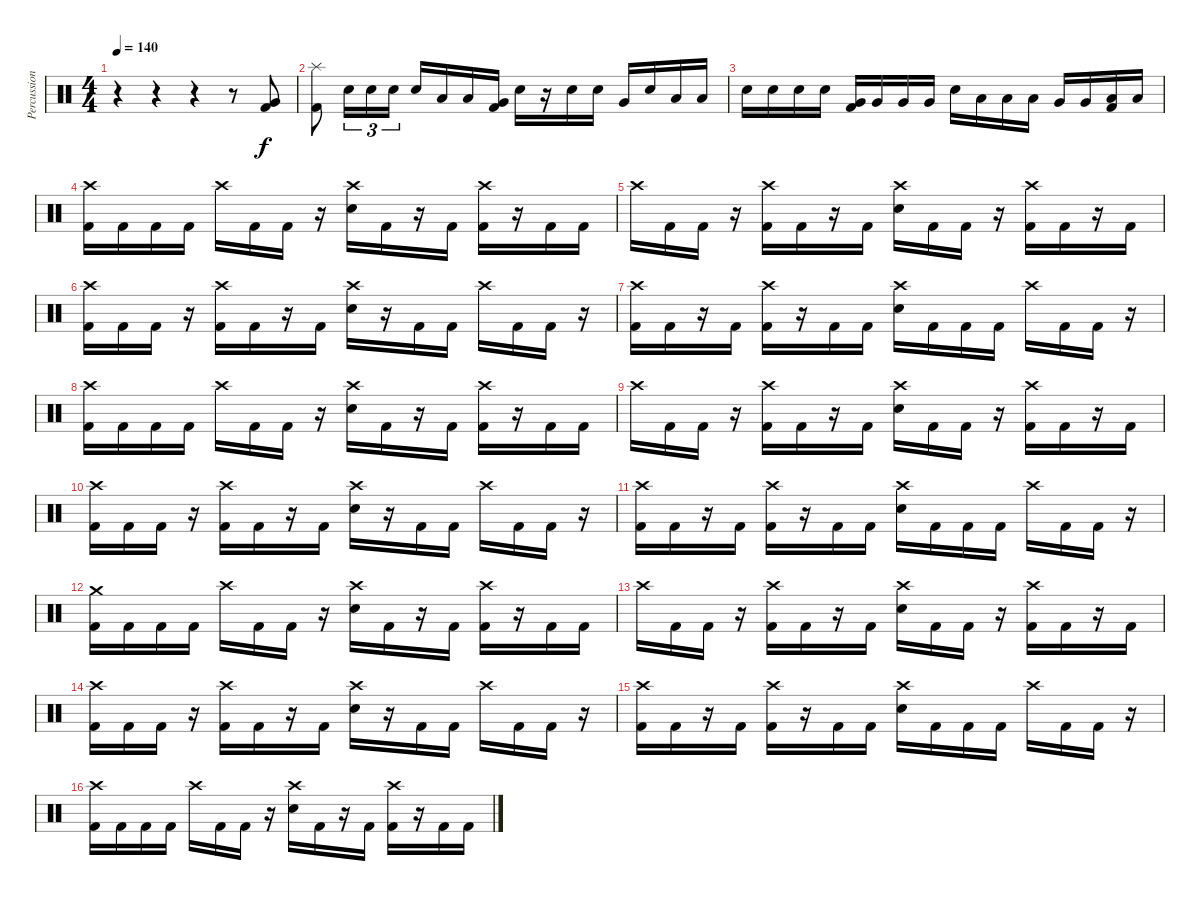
\track ("Percussion" "Percussion") {instrument percussion}
\staff {score}
\articulation defaults
\ts (4 4)
\tempo 140
\clef neutral
\ks c
r.4{dy f} r.4 r.4 r.8 ("Very Low Tom (hit)" "Kick (hit) 2").8 |
("Splash (hit)" "Kick (hit) 2").8 "Electric Snare (hit)".16{tu (3 2)} "Electric Snare (hit)".16{tu (3 2)} "Electric Snare (hit)".16{tu (3 2)} "Electric Snare (hit)".16 "Low Tom (hit)".16 "Low Tom (hit)".16 ("Very Low Tom (hit)" "Kick (hit) 2").16 "Electric Snare (hit)".16 r.16 "Electric Snare (hit)".16 "Electric Snare (hit)".16 "Very Low Tom (hit)".16 "Electric Snare (hit)".16 "Low Tom (hit)".16 "Low Tom (hit)".16 |
"Electric Snare (hit)".16 "Electric Snare (hit)".16 "Electric Snare (hit)".16 "Electric Snare (hit)".16 ("Very Low Tom (hit)" "Kick (hit) 2").16 "Very Low Tom (hit)".16 "Very Low Tom (hit)".16 "Very Low Tom (hit)".16 "Electric Snare (hit)".16 "Low Tom (hit)".16 "Low Tom (hit)".16 "Low Tom (hit)".16 "Very Low Tom (hit)".16 "Very Low Tom (hit)".16 ("Low Floor Tom (hit)" "Kick (hit) 2").16 "Low Floor Tom (hit)".16 |
("Crash high (hit)" "Kick (hit) 2").16 "Kick (hit) 2".16 "Kick (hit) 2".16 "Kick (hit) 2".16 "Crash high (hit)".16 "Kick (hit) 2".16 "Kick (hit) 2".16 r.16 ("Crash high (hit)" "Electric Snare (hit)").16 "Kick (hit) 2".16 r.16 "Kick (hit) 2".16 ("Crash high (hit)" "Kick (hit) 2").16 r.16 "Kick (hit) 2".16 "Kick (hit) 2".16 |
"Crash high (hit)".16 "Kick (hit) 2".16 "Kick (hit) 2".16 r.16 ("Crash high (hit)" "Kick (hit) 2").16 "Kick (hit) 2".16 r.16 "Kick (hit) 2".16 ("Crash high (hit)" "Electric Snare (hit)").16 "Kick (hit) 2".16 "Kick (hit) 2".16 r.16 ("Crash high (hit)" "Kick (hit) 2").16 "Kick (hit) 2".16 r.16 "Kick (hit) 2".16 |
("Crash high (hit)" "Kick (hit) 2").16 "Kick (hit) 2".16 "Kick (hit) 2".16 r.16 ("Crash high (hit)" "Kick (hit) 2").16 "Kick (hit) 2".16 r.16 "Kick (hit) 2".16 ("Crash high (hit)" "Electric Snare (hit)").16 r.16 "Kick (hit) 2".16 "Kick (hit) 2".16 "Crash high (hit)".16 "Kick (hit) 2".16 "Kick (hit) 2".16 r.16 |
("Crash high (hit)" "Kick (hit) 2").16 "Kick (hit) 2".16 r.16 "Kick (hit) 2".16 ("Crash high (hit)" "Kick (hit) 2").16 r.16 "Kick (hit) 2".16 "Kick (hit) 2".16 ("Crash high (hit)" "Electric Snare (hit)").16 "Kick (hit) 2".16 "Kick (hit) 2".16 "Kick (hit) 2".16 "Crash high (hit)".16 "Kick (hit) 2".16 "Kick (hit) 2".16 r.16 |
("Crash high (hit)" "Kick (hit) 2").16 "Kick (hit) 2".16 "Kick (hit) 2".16 "Kick (hit) 2".16 "Crash high (hit)".16 "Kick (hit) 2".16 "Kick (hit) 2".16 r.16 ("Crash high (hit)" "Electric Snare (hit)").16 "Kick (hit) 2".16 r.16 "Kick (hit) 2".16 ("Crash high (hit)" "Kick (hit) 2").16 r.16 "Kick (hit) 2".16 "Kick (hit) 2".16 |
"Crash high (hit)".16 "Kick (hit) 2".16 "Kick (hit) 2".16 r.16 ("Crash high (hit)" "Kick (hit) 2").16 "Kick (hit) 2".16 r.16 "Kick (hit) 2".16 ("Crash high (hit)" "Electric Snare (hit)").16 "Kick (hit) 2".16 "Kick (hit) 2".16 r.16 ("Crash high (hit)" "Kick (hit) 2").16 "Kick (hit) 2".16 r.16 "Kick (hit) 2".16 |
("Crash high (hit)" "Kick (hit) 2").16 "Kick (hit) 2".16 "Kick (hit) 2".16 r.16 ("Crash high (hit)" "Kick (hit) 2").16 "Kick (hit) 2".16 r.16 "Kick (hit) 2".16 ("Crash high (hit)" "Electric Snare (hit)").16 r.16 "Kick (hit) 2".16 "Kick (hit) 2".16 "Crash high (hit)".16 "Kick (hit) 2".16 "Kick (hit) 2".16 r.16 |
("Crash high (hit)" "Kick (hit) 2").16 "Kick (hit) 2".16 r.16 "Kick (hit) 2".16 ("Crash high (hit)" "Kick (hit) 2").16 r.16 "Kick (hit) 2".16 "Kick (hit) 2".16 ("Crash high (hit)" "Electric Snare (hit)").16 "Kick (hit) 2".16 "Kick (hit) 2".16 "Kick (hit) 2".16 "Crash high (hit)".16 "Kick (hit) 2".16 "Kick (hit) 2".16 r.16 |
("Crash medium (hit)" "Kick (hit) 2").16 "Kick (hit) 2".16 "Kick (hit) 2".16 "Kick (hit) 2".16 "Crash high (hit)".16 "Kick (hit) 2".16 "Kick (hit) 2".16 r.16 ("Crash high (hit)" "Electric Snare (hit)").16 "Kick (hit) 2".16 r.16 "Kick (hit) 2".16 ("Crash high (hit)" "Kick (hit) 2").16 r.16 "Kick (hit) 2".16 "Kick (hit) 2".16 |
"Crash high (hit)".16 "Kick (hit) 2".16 "Kick (hit) 2".16 r.16 ("Crash high (hit)" "Kick (hit) 2").16 "Kick (hit) 2".16 r.16 "Kick (hit) 2".16 ("Crash high (hit)" "Electric Snare (hit)").16 "Kick (hit) 2".16 "Kick (hit) 2".16 r.16 ("Crash high (hit)" "Kick (hit) 2").16 "Kick (hit) 2".16 r.16 "Kick (hit) 2".16 |
("Crash high (hit)" "Kick (hit) 2").16 "Kick (hit) 2".16 "Kick (hit) 2".16 r.16 ("Crash high (hit)" "Kick (hit) 2").16 "Kick (hit) 2".16 r.16 "Kick (hit) 2".16 ("Crash high (hit)" "Electric Snare (hit)").16 r.16 "Kick (hit) 2".16 "Kick (hit) 2".16 "Crash high (hit)".16 "Kick (hit) 2".16 "Kick (hit) 2".16 r.16 |
("Crash high (hit)" "Kick (hit) 2").16 "Kick (hit) 2".16 r.16 "Kick (hit) 2".16 ("Crash high (hit)" "Kick (hit) 2").16 r.16 "Kick (hit) 2".16 "Kick (hit) 2".16 ("Crash high (hit)" "Electric Snare (hit)").16 "Kick (hit) 2".16 "Kick (hit) 2".16 "Kick (hit) 2".16 "Crash high (hit)".16 "Kick (hit) 2".16 "Kick (hit) 2".16 r.16 |
("Crash high (hit)" "Kick (hit) 2").16 "Kick (hit) 2".16 "Kick (hit) 2".16 "Kick (hit) 2".16 "Crash high (hit)".16 "Kick (hit) 2".16 "Kick (hit) 2".16 r.16 ("Crash high (hit)" "Electric Snare (hit)").16 "Kick (hit) 2".16 r.16 "Kick (hit) 2".16 ("Crash high (hit)" "Kick (hit) 2").16 r.16 "Kick (hit) 2".16 "Kick (hit) 2".16
